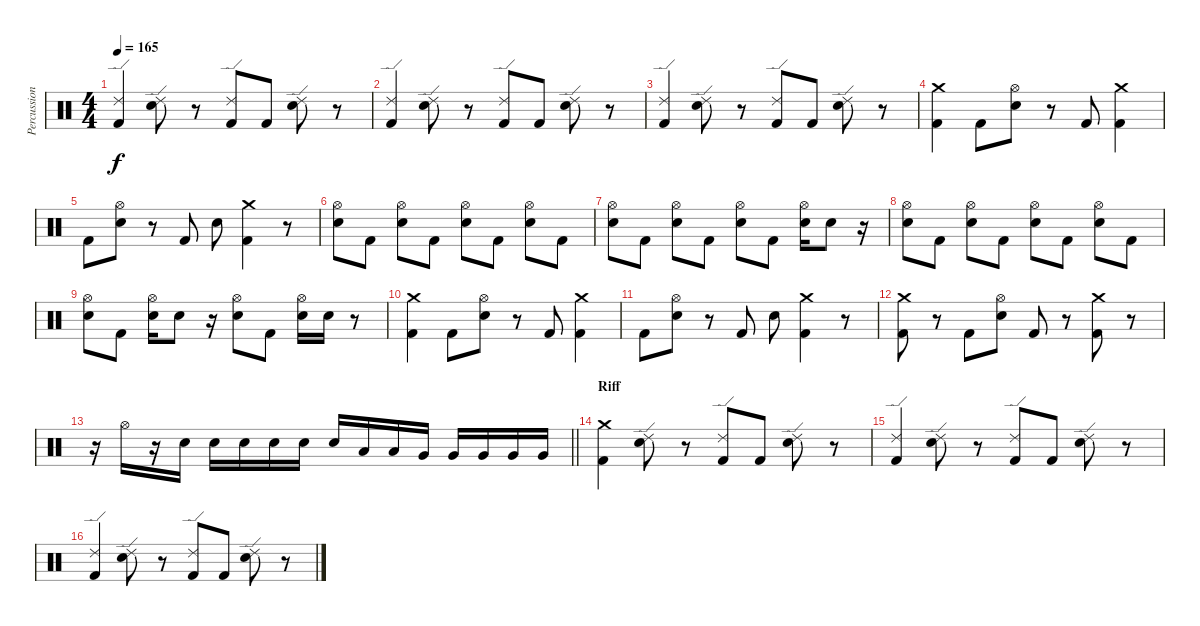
\track ("Percussion" "Percussion") {instrument percussion}
\staff {score}
\articulation defaults
\ts (4 4)
\tempo 165
\clef neutral
\ks c
("Ride (edge) 2" "Kick (hit) 2").4{dy f} ("Ride (edge) 2" "Electric Snare (hit)").8 r.8 ("Ride (edge) 2" "Kick (hit) 2").8 "Kick (hit) 2".8 ("Ride (edge) 2" "Electric Snare (hit)").8 r.8 |
("Ride (edge) 2" "Kick (hit) 2").4 ("Ride (edge) 2" "Electric Snare (hit)").8 r.8 ("Ride (edge) 2" "Kick (hit) 2").8 "Kick (hit) 2".8 ("Ride (edge) 2" "Electric Snare (hit)").8 r.8 |
("Ride (edge) 2" "Kick (hit) 2").4 ("Ride (edge) 2" "Electric Snare (hit)").8 r.8 ("Ride (edge) 2" "Kick (hit) 2").8 "Kick (hit) 2".8 ("Ride (edge) 2" "Electric Snare (hit)").8 r.8 |
("Crash medium (hit)" "Kick (hit) 2").4 "Kick (hit) 2".8 ("Hi-Hat (open)" "Electric Snare (hit)").8 r.8 "Kick (hit) 2".8 ("Crash medium (hit)" "Kick (hit) 2").4 |
"Kick (hit) 2".8 ("Hi-Hat (open)" "Electric Snare (hit)").8 r.8 "Kick (hit) 2".8 "Electric Snare (hit)".8 ("Crash medium (hit)" "Kick (hit) 2").4 r.8 |
("Hi-Hat (open)" "Electric Snare (hit)").8 "Kick (hit) 2".8 ("Hi-Hat (open)" "Electric Snare (hit)").8 "Kick (hit) 2".8 ("Hi-Hat (open)" "Electric Snare (hit)").8 "Kick (hit) 2".8 ("Hi-Hat (open)" "Electric Snare (hit)").8 "Kick (hit) 2".8 |
("Hi-Hat (open)" "Electric Snare (hit)").8 "Kick (hit) 2".8 ("Hi-Hat (open)" "Electric Snare (hit)").8 "Kick (hit) 2".8 ("Hi-Hat (open)" "Electric Snare (hit)").8 "Kick (hit) 2".8 ("Hi-Hat (open)" "Electric Snare (hit)").16 "Electric Snare (hit)".8 r.16 |
("Hi-Hat (open)" "Electric Snare (hit)").8 "Kick (hit) 2".8 ("Hi-Hat (open)" "Electric Snare (hit)").8 "Kick (hit) 2".8 ("Hi-Hat (open)" "Electric Snare (hit)").8 "Kick (hit) 2".8 ("Hi-Hat (open)" "Electric Snare (hit)").8 "Kick (hit) 2".8 |
("Hi-Hat (open)" "Electric Snare (hit)").8 "Kick (hit) 2".8 ("Hi-Hat (open)" "Electric Snare (hit)").16 "Electric Snare (hit)".8 r.16 ("Hi-Hat (open)" "Electric Snare (hit)").8 "Kick (hit) 2".8 ("Hi-Hat (open)" "Electric Snare (hit)").16 "Electric Snare (hit)".16 r.8 |
("Crash medium (hit)" "Kick (hit) 2").4 "Kick (hit) 2".8 ("Hi-Hat (open)" "Electric Snare (hit)").8 r.8 "Kick (hit) 2".8 ("Crash medium (hit)" "Kick (hit) 2").4 |
"Kick (hit) 2".8 ("Hi-Hat (open)" "Electric Snare (hit)").8 r.8 "Kick (hit) 2".8 "Electric Snare (hit)".8 ("Crash medium (hit)" "Kick (hit) 2").4 r.8 |
("Crash medium (hit)" "Kick (hit) 2").8 r.8 "Kick (hit) 2".8 ("Hi-Hat (open)" "Electric Snare (hit)").8 "Kick (hit) 2".8 r.8 ("Crash medium (hit)" "Kick (hit) 2").8 r.8 |
\barLineRight lightlight
r.16 "Hi-Hat (open)".16 r.16 "Electric Snare (hit)".16 "Electric Snare (hit)".16 "Electric Snare (hit)".16 "Electric Snare (hit)".16 "Electric Snare (hit)".16 "Electric Snare (hit)".16 "Low Tom (hit)".16 "Low Tom (hit)".16 "Very Low Tom (hit)".16 "Very Low Tom (hit)".16 "Very Low Tom (hit)".16 "Very Low Tom (hit)".16 "Very Low Tom (hit)".16 |
\section ("" "Riff")
("Crash medium (hit)" "Kick (hit) 2").4 ("Ride (edge) 2" "Electric Snare (hit)").8 r.8 ("Ride (edge) 2" "Kick (hit) 2").8 "Kick (hit) 2".8 ("Ride (edge) 2" "Electric Snare (hit)").8 r.8 |
("Ride (edge) 2" "Kick (hit) 2").4 ("Ride (edge) 2" "Electric Snare (hit)").8 r.8 ("Ride (edge) 2" "Kick (hit) 2").8 "Kick (hit) 2".8 ("Ride (edge) 2" "Electric Snare (hit)").8 r.8 |
("Ride (edge) 2" "Kick (hit) 2").4 ("Ride (edge) 2" "Electric Snare (hit)").8 r.8 ("Ride (edge) 2" "Kick (hit) 2").8 "Kick (hit) 2".8 ("Ride (edge) 2" "Electric Snare (hit)").8 r.8
